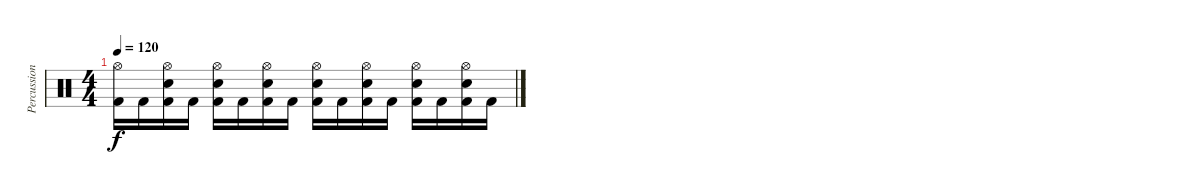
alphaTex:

\track ("Percussions" "Percussion") {instrument percussion}
\staff {score}
\articulation defaults
\ts (4 4)
\tempo 120
\clef neutral
\ks c
("Hi-Hat (open)" "Kick (hit) 2").16{dy f} "Kick (hit) 2".16 ("Hi-Hat (open)" "Electric Snare (hit)" "Kick (hit) 2").16 "Kick (hit) 2".16 ("Hi-Hat (open)" "Electric Snare (hit)" "Kick (hit) 2").16 "Kick (hit) 2".16 ("Hi-Hat (open)" "Electric Snare (hit)" "Kick (hit) 2").16 "Kick (hit) 2".16 ("Hi-Hat (open)" "Electric Snare (hit)" "Kick (hit) 2").16 "Kick (hit) 2".16 ("Hi-Hat (open)" "Electric Snare (hit)" "Kick (hit) 2").16 "Kick (hit) 2".16 ("Hi-Hat (open)" "Electric Snare (hit)" "Kick (hit) 2").16 "Kick (hit) 2".16 ("Hi-Hat (open)" "Electric Snare (hit)" "Kick (hit) 2").16 "Kick (hit) 2".16
